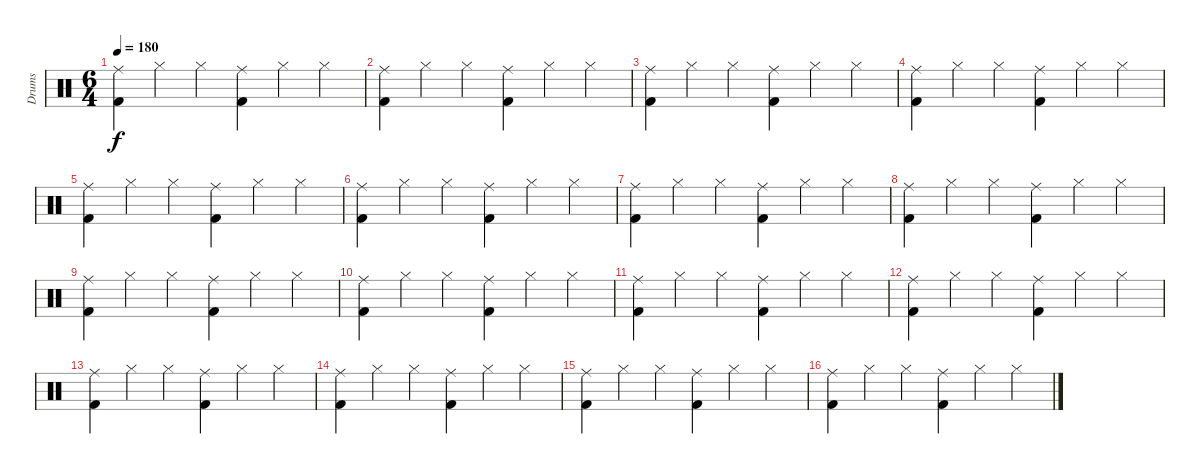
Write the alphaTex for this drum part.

\track ("Drums" "Drums") {instrument percussion}
\staff {score}
\articulation defaults
\ts (6 4)
\tempo 180
\clef neutral
\ks c
("Ride (middle)" "Kick (hit) 2").4{dy f} "Hi-Hat (closed)".4 "Hi-Hat (closed)".4 ("Ride (middle)" "Kick (hit) 2").4 "Hi-Hat (closed)".4 "Hi-Hat (closed)".4 |
("Ride (middle)" "Kick (hit) 2").4 "Hi-Hat (closed)".4 "Hi-Hat (closed)".4 ("Ride (middle)" "Kick (hit) 2").4 "Hi-Hat (closed)".4 "Hi-Hat (closed)".4 |
("Ride (middle)" "Kick (hit) 2").4 "Hi-Hat (closed)".4 "Hi-Hat (closed)".4 ("Ride (middle)" "Kick (hit) 2").4 "Hi-Hat (closed)".4 "Hi-Hat (closed)".4 |
("Ride (middle)" "Kick (hit) 2").4 "Hi-Hat (closed)".4 "Hi-Hat (closed)".4 ("Ride (middle)" "Kick (hit) 2").4 "Hi-Hat (closed)".4 "Hi-Hat (closed)".4 |
("Ride (middle)" "Kick (hit) 2").4 "Hi-Hat (closed)".4 "Hi-Hat (closed)".4 ("Ride (middle)" "Kick (hit) 2").4 "Hi-Hat (closed)".4 "Hi-Hat (closed)".4 |
("Ride (middle)" "Kick (hit) 2").4 "Hi-Hat (closed)".4 "Hi-Hat (closed)".4 ("Ride (middle)" "Kick (hit) 2").4 "Hi-Hat (closed)".4 "Hi-Hat (closed)".4 |
("Ride (middle)" "Kick (hit) 2").4 "Hi-Hat (closed)".4 "Hi-Hat (closed)".4 ("Ride (middle)" "Kick (hit) 2").4 "Hi-Hat (closed)".4 "Hi-Hat (closed)".4 |
("Ride (middle)" "Kick (hit) 2").4 "Hi-Hat (closed)".4 "Hi-Hat (closed)".4 ("Ride (middle)" "Kick (hit) 2").4 "Hi-Hat (closed)".4 "Hi-Hat (closed)".4 |
("Ride (middle)" "Kick (hit) 2").4 "Hi-Hat (closed)".4 "Hi-Hat (closed)".4 ("Ride (middle)" "Kick (hit) 2").4 "Hi-Hat (closed)".4 "Hi-Hat (closed)".4 |
("Ride (middle)" "Kick (hit) 2").4 "Hi-Hat (closed)".4 "Hi-Hat (closed)".4 ("Ride (middle)" "Kick (hit) 2").4 "Hi-Hat (closed)".4 "Hi-Hat (closed)".4 |
("Ride (middle)" "Kick (hit) 2").4 "Hi-Hat (closed)".4 "Hi-Hat (closed)".4 ("Ride (middle)" "Kick (hit) 2").4 "Hi-Hat (closed)".4 "Hi-Hat (closed)".4 |
("Ride (middle)" "Kick (hit) 2").4 "Hi-Hat (closed)".4 "Hi-Hat (closed)".4 ("Ride (middle)" "Kick (hit) 2").4 "Hi-Hat (closed)".4 "Hi-Hat (closed)".4 |
("Ride (middle)" "Kick (hit) 2").4 "Hi-Hat (closed)".4 "Hi-Hat (closed)".4 ("Ride (middle)" "Kick (hit) 2").4 "Hi-Hat (closed)".4 "Hi-Hat (closed)".4 |
("Ride (middle)" "Kick (hit) 2").4 "Hi-Hat (closed)".4 "Hi-Hat (closed)".4 ("Ride (middle)" "Kick (hit) 2").4 "Hi-Hat (closed)".4 "Hi-Hat (closed)".4 |
("Ride (middle)" "Kick (hit) 2").4 "Hi-Hat (closed)".4 "Hi-Hat (closed)".4 ("Ride (middle)" "Kick (hit) 2").4 "Hi-Hat (closed)".4 "Hi-Hat (closed)".4 |
("Ride (middle)" "Kick (hit) 2").4 "Hi-Hat (closed)".4 "Hi-Hat (closed)".4 ("Ride (middle)" "Kick (hit) 2").4 "Hi-Hat (closed)".4 "Hi-Hat (closed)".4
